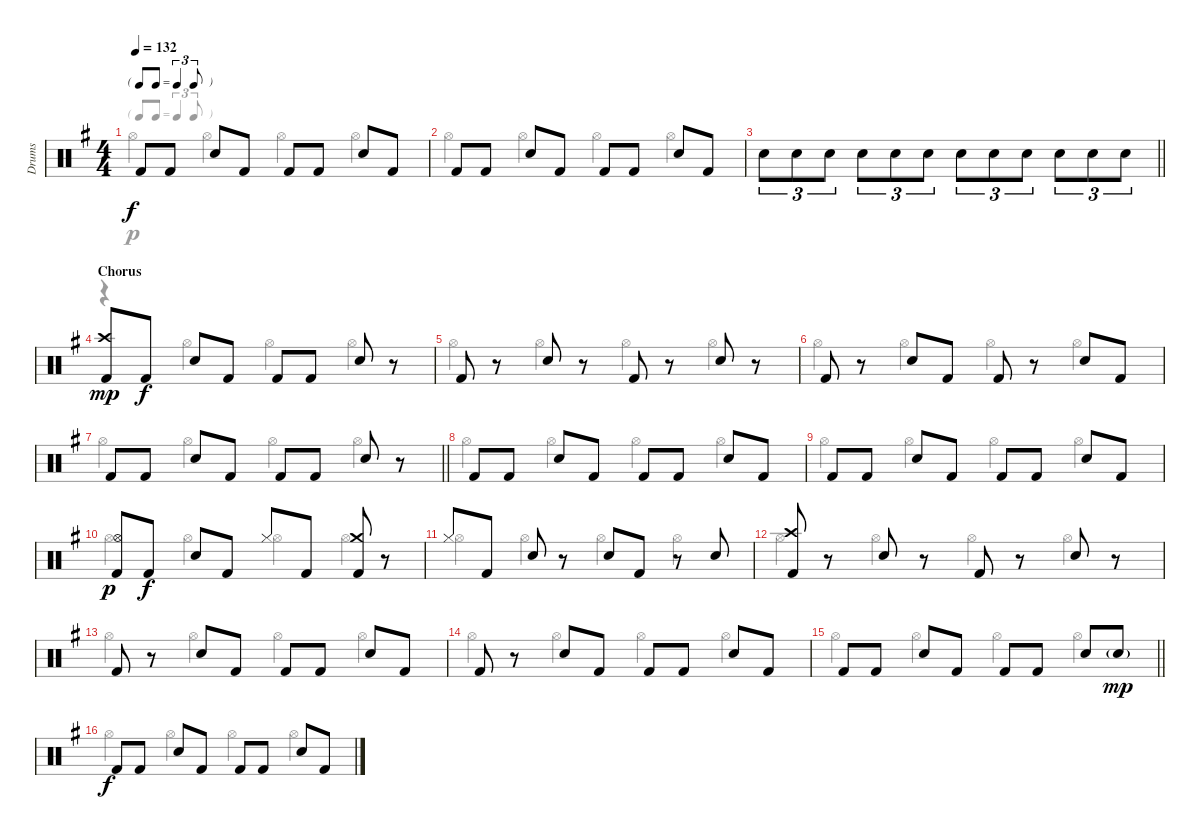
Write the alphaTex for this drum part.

\track ("Drums" "Drums") {instrument percussion}
\staff {score}
\articulation defaults
\voice
\ts (4 4)
\tf triplet8th
\tempo 132
\clef neutral
\ks g "Kick (hit) 2".8{dy f} "Kick (hit) 2".8 "Electric Snare (hit)".8 "Kick (hit) 2".8 "Kick (hit) 2".8 "Kick (hit) 2".8 "Electric Snare (hit)".8 "Kick (hit) 2".8
|
"Kick (hit) 2".8 "Kick (hit) 2".8 "Electric Snare (hit)".8 "Kick (hit) 2".8 "Kick (hit) 2".8 "Kick (hit) 2".8 "Electric Snare (hit)".8 "Kick (hit) 2".8 |
\barLineRight lightlight "Electric Snare (hit)".8{tu (3 2)} "Electric Snare (hit)".8{tu (3 2)} "Electric Snare (hit)".8{tu (3 2)} "Electric Snare (hit)".8{tu (3 2)} "Electric Snare (hit)".8{tu (3 2)} "Electric Snare (hit)".8{tu (3 2)} "Electric Snare (hit)".8{tu (3 2)} "Electric Snare (hit)".8{tu (3 2)} "Electric Snare (hit)".8{tu (3 2)} "Electric Snare (hit)".8{tu (3 2)} "Electric Snare (hit)".8{tu (3 2)} "Electric Snare (hit)".8{tu (3 2)}
|
\section ("" "Chorus")
("Crash high (hit)" "Kick (hit) 2").8{dy mp} "Kick (hit) 2".8{dy f} "Electric Snare (hit)".8 "Kick (hit) 2".8 "Kick (hit) 2".8 "Kick (hit) 2".8 "Electric Snare (hit)".8 r.8 |
"Kick (hit) 2".8 r.8 "Electric Snare (hit)".8 r.8 "Kick (hit) 2".8 r.8 "Electric Snare (hit)".8 r.8 |
"Kick (hit) 2".8 r.8 "Electric Snare (hit)".8 "Kick (hit) 2".8 "Kick (hit) 2".8 r.8 "Electric Snare (hit)".8 "Kick (hit) 2".8 |
\barLineRight lightlight "Kick (hit) 2".8 "Kick (hit) 2".8 "Electric Snare (hit)".8 "Kick (hit) 2".8 "Kick (hit) 2".8 "Kick (hit) 2".8 "Electric Snare (hit)".8
r.8 |
"Kick (hit) 2".8 "Kick (hit) 2".8 "Electric Snare (hit)".8 "Kick (hit) 2".8 "Kick (hit) 2".8 "Kick (hit) 2".8 "Electric Snare (hit)".8 "Kick (hit) 2".8 |
"Kick (hit) 2".8 "Kick (hit) 2".8 "Electric Snare (hit)".8 "Kick (hit) 2".8 "Kick (hit) 2".8 "Kick (hit) 2".8 "Electric Snare (hit)".8 "Kick (hit) 2".8 |
("Hi-Hat (open)" "Kick (hit) 2").8{dy p} "Kick (hit) 2".8{dy f} "Electric Snare (hit)".8 "Kick (hit) 2".8 "Hi-Hat (closed)".8 "Kick (hit) 2".8 ("Crash medium (hit)" "Kick (hit) 2").8 r.8 |
"Hi-Hat (closed)".8 "Kick (hit) 2".8 "Electric Snare (hit)".8 r.8 "Electric Snare (hit)".8 "Kick (hit) 2".8 r.8 "Electric Snare (hit)".8 |
("Crash high (hit)" "Kick (hit) 2").8 r.8 "Electric Snare (hit)".8 r.8 "Kick (hit) 2".8 r.8 "Electric Snare (hit)".8 r.8 |
"Kick (hit) 2".8 r.8 "Electric Snare (hit)".8 "Kick (hit) 2".8 "Kick (hit) 2".8 "Kick (hit) 2".8 "Electric Snare (hit)".8 "Kick (hit) 2".8 |
"Kick (hit) 2".8 r.8 "Electric Snare (hit)".8 "Kick (hit) 2".8 "Kick (hit) 2".8 "Kick (hit) 2".8 "Electric Snare (hit)".8 "Kick (hit) 2".8 |
\barLineRight lightlight "Kick (hit) 2".8 "Kick (hit) 2".8 "Electric Snare (hit)".8 "Kick (hit) 2".8 "Kick (hit) 2".8 "Kick (hit) 2".8 "Electric Snare (hit)".8 "Electric Snare (hit)"{g}.8{dy mp}
|
"Kick (hit) 2".8{dy f} "Kick (hit) 2".8 "Electric Snare (hit)".8 "Kick (hit) 2".8 "Kick (hit) 2".8 "Kick (hit) 2".8 "Electric Snare (hit)".8 "Kick (hit) 2".8
\voice
\clef neutral
\ottava regular
\simile none
\ks g "Hi-Hat (open)".4{dy p} "Hi-Hat (open)".4 "Hi-Hat (open)".4 "Hi-Hat (open)".4
|
"Hi-Hat (open)".4 "Hi-Hat (open)".4 "Hi-Hat (open)".4 "Hi-Hat (open)".4 |
\barLineRight lightlight
|
r.4 "Hi-Hat (open)".4 "Hi-Hat (open)".4 "Hi-Hat (open)".4 |
"Hi-Hat (open)".4 "Hi-Hat (open)".4 "Hi-Hat (open)".4 "Hi-Hat (open)".4 |
"Hi-Hat (open)".4 "Hi-Hat (open)".4 "Hi-Hat (open)".4 "Hi-Hat (open)".4 |
\barLineRight lightlight "Hi-Hat (open)".4 "Hi-Hat (open)".4 "Hi-Hat (open)".4 "Hi-Hat (open)".4
|
"Hi-Hat (open)".4 "Hi-Hat (open)".4 "Hi-Hat (open)".4 "Hi-Hat (open)".4 |
"Hi-Hat (open)".4 "Hi-Hat (open)".4 "Hi-Hat (open)".4 "Hi-Hat (open)".4 |
"Hi-Hat (open)".4 "Hi-Hat (open)".4 "Hi-Hat (open)".4 "Hi-Hat (open)".4 |
"Hi-Hat (open)".4 "Hi-Hat (open)".4 "Hi-Hat (open)".4 "Hi-Hat (open)".4 |
"Hi-Hat (open)".4 "Hi-Hat (open)".4 "Hi-Hat (open)".4 "Hi-Hat (open)".4 |
"Hi-Hat (open)".4 "Hi-Hat (open)".4 "Hi-Hat (open)".4 "Hi-Hat (open)".4 |
"Hi-Hat (open)".4 "Hi-Hat (open)".4 "Hi-Hat (open)".4 "Hi-Hat (open)".4 |
\barLineRight lightlight "Hi-Hat (open)".4 "Hi-Hat (open)".4 "Hi-Hat (open)".4 "Hi-Hat (open)".4
|
"Hi-Hat (open)".4 "Hi-Hat (open)".4 "Hi-Hat (open)".4 "Hi-Hat (open)".4
